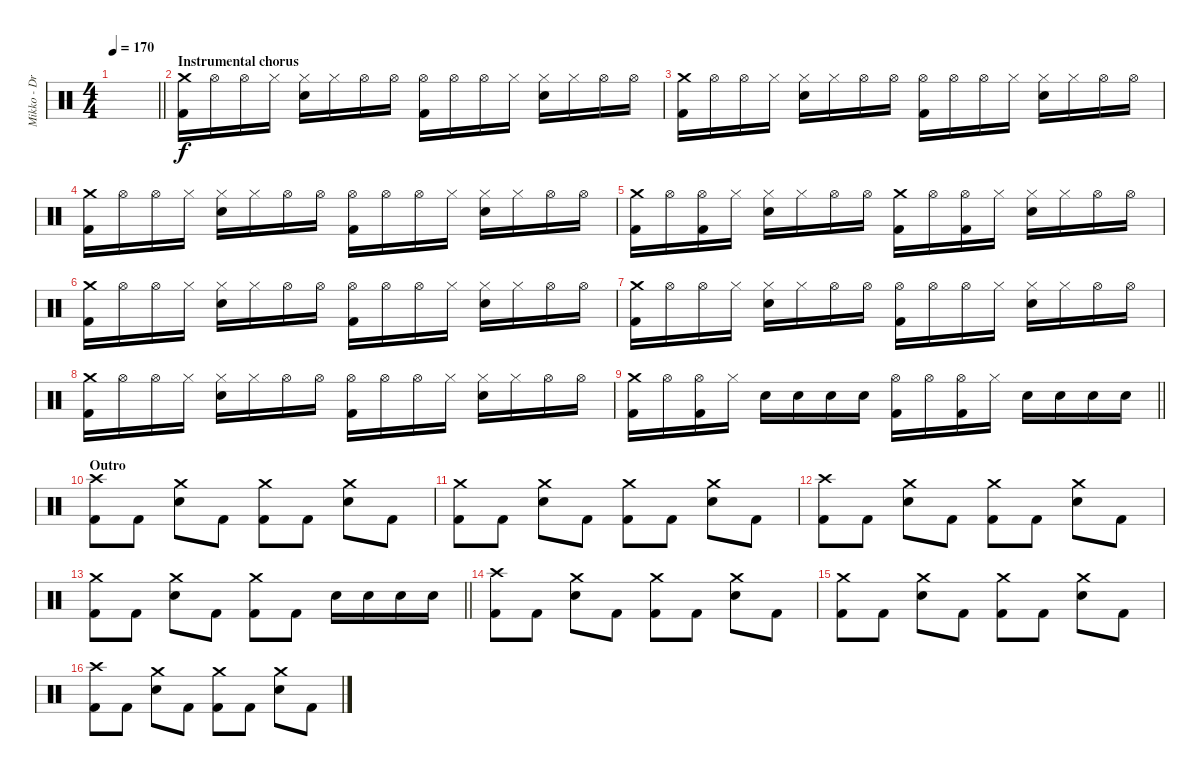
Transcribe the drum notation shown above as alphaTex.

\track ("Mikko - Drums" "Mikko - Dr") {instrument percussion}
\staff {score}
\articulation defaults
\ts (4 4)
\tempo 170
\clef neutral
\barLineRight lightlight
\ks c
|
\section ("" "Instrumental chorus")
("Crash medium (hit)" "Kick (hit) 2").16 "Hi-Hat (open)".16 "Hi-Hat (open)".16 "Hi-Hat (closed)".16 ("Hi-Hat (closed)" "Snare (hit) 2").16 "Hi-Hat (closed)".16 "Hi-Hat (open)".16 "Hi-Hat (open)".16 ("Hi-Hat (open)" "Kick (hit) 2").16 "Hi-Hat (open)".16 "Hi-Hat (open)".16 "Hi-Hat (closed)".16 ("Hi-Hat (closed)" "Snare (hit) 2").16 "Hi-Hat (closed)".16 "Hi-Hat (open)".16 "Hi-Hat (open)".16 |
("Crash medium (hit)" "Kick (hit) 2").16 "Hi-Hat (open)".16 "Hi-Hat (open)".16 "Hi-Hat (closed)".16 ("Hi-Hat (closed)" "Snare (hit) 2").16 "Hi-Hat (closed)".16 "Hi-Hat (open)".16 "Hi-Hat (open)".16 ("Hi-Hat (open)" "Kick (hit) 2").16 "Hi-Hat (open)".16 "Hi-Hat (open)".16 "Hi-Hat (closed)".16 ("Hi-Hat (closed)" "Snare (hit) 2").16 "Hi-Hat (closed)".16 "Hi-Hat (open)".16 "Hi-Hat (open)".16 |
("Crash medium (hit)" "Kick (hit) 2").16 "Hi-Hat (open)".16 "Hi-Hat (open)".16 "Hi-Hat (closed)".16 ("Hi-Hat (closed)" "Snare (hit) 2").16 "Hi-Hat (closed)".16 "Hi-Hat (open)".16 "Hi-Hat (open)".16 ("Hi-Hat (open)" "Kick (hit) 2").16 "Hi-Hat (open)".16 "Hi-Hat (open)".16 "Hi-Hat (closed)".16 ("Hi-Hat (closed)" "Snare (hit) 2").16 "Hi-Hat (closed)".16 "Hi-Hat (open)".16 "Hi-Hat (open)".16 |
("Crash medium (hit)" "Kick (hit) 2").16 "Hi-Hat (open)".16 ("Hi-Hat (open)" "Kick (hit) 2").16 "Hi-Hat (closed)".16 ("Hi-Hat (closed)" "Snare (hit) 2").16 "Hi-Hat (closed)".16 "Hi-Hat (open)".16 "Hi-Hat (open)".16 ("Crash medium (hit)" "Kick (hit) 2").16 "Hi-Hat (open)".16 ("Hi-Hat (open)" "Kick (hit) 2").16 "Hi-Hat (closed)".16 ("Hi-Hat (closed)" "Snare (hit) 2").16 "Hi-Hat (closed)".16 "Hi-Hat (open)".16 "Hi-Hat (open)".16 |
("Crash medium (hit)" "Kick (hit) 2").16 "Hi-Hat (open)".16 "Hi-Hat (open)".16 "Hi-Hat (closed)".16 ("Hi-Hat (closed)" "Snare (hit) 2").16 "Hi-Hat (closed)".16 "Hi-Hat (open)".16 "Hi-Hat (open)".16 ("Hi-Hat (open)" "Kick (hit) 2").16 "Hi-Hat (open)".16 "Hi-Hat (open)".16 "Hi-Hat (closed)".16 ("Hi-Hat (closed)" "Snare (hit) 2").16 "Hi-Hat (closed)".16 "Hi-Hat (open)".16 "Hi-Hat (open)".16 |
("Crash medium (hit)" "Kick (hit) 2").16 "Hi-Hat (open)".16 "Hi-Hat (open)".16 "Hi-Hat (closed)".16 ("Hi-Hat (closed)" "Snare (hit) 2").16 "Hi-Hat (closed)".16 "Hi-Hat (open)".16 "Hi-Hat (open)".16 ("Hi-Hat (open)" "Kick (hit) 2").16 "Hi-Hat (open)".16 "Hi-Hat (open)".16 "Hi-Hat (closed)".16 ("Hi-Hat (closed)" "Snare (hit) 2").16 "Hi-Hat (closed)".16 "Hi-Hat (open)".16 "Hi-Hat (open)".16 |
("Crash medium (hit)" "Kick (hit) 2").16 "Hi-Hat (open)".16 "Hi-Hat (open)".16 "Hi-Hat (closed)".16 ("Hi-Hat (closed)" "Snare (hit) 2").16 "Hi-Hat (closed)".16 "Hi-Hat (open)".16 "Hi-Hat (open)".16 ("Hi-Hat (open)" "Kick (hit) 2").16 "Hi-Hat (open)".16 "Hi-Hat (open)".16 "Hi-Hat (closed)".16 ("Hi-Hat (closed)" "Snare (hit) 2").16 "Hi-Hat (closed)".16 "Hi-Hat (open)".16 "Hi-Hat (open)".16 |
\barLineRight lightlight
("Crash medium (hit)" "Kick (hit) 2").16 "Hi-Hat (open)".16 ("Hi-Hat (open)" "Kick (hit) 2").16 "Hi-Hat (closed)".16 "Snare (hit) 2".16 "Snare (hit) 2".16 "Snare (hit) 2".16 "Snare (hit) 2".16 ("Hi-Hat (open)" "Kick (hit) 2").16 "Hi-Hat (open)".16 ("Hi-Hat (open)" "Kick (hit) 2").16 "Hi-Hat (closed)".16 "Snare (hit) 2".16 "Snare (hit) 2".16 "Snare (hit) 2".16 "Snare (hit) 2".16 |
\section ("" "Outro")
("Crash high (hit)" "Kick (hit) 2").8 "Kick (hit) 2".8 ("Crash medium (hit)" "Snare (hit) 2").8 "Kick (hit) 2".8 ("Crash medium (hit)" "Kick (hit) 2").8 "Kick (hit) 2".8 ("Crash medium (hit)" "Snare (hit) 2").8 "Kick (hit) 2".8 |
("Crash medium (hit)" "Kick (hit) 2").8 "Kick (hit) 2".8 ("Crash medium (hit)" "Snare (hit) 2").8 "Kick (hit) 2".8 ("Crash medium (hit)" "Kick (hit) 2").8 "Kick (hit) 2".8 ("Crash medium (hit)" "Snare (hit) 2").8 "Kick (hit) 2".8 |
("Crash high (hit)" "Kick (hit) 2").8 "Kick (hit) 2".8 ("Crash medium (hit)" "Snare (hit) 2").8 "Kick (hit) 2".8 ("Crash medium (hit)" "Kick (hit) 2").8 "Kick (hit) 2".8 ("Crash medium (hit)" "Snare (hit) 2").8 "Kick (hit) 2".8 |
\barLineRight lightlight
("Crash medium (hit)" "Kick (hit) 2").8 "Kick (hit) 2".8 ("Crash medium (hit)" "Snare (hit) 2").8 "Kick (hit) 2".8 ("Crash medium (hit)" "Kick (hit) 2").8 "Kick (hit) 2".8 "Snare (hit) 2".16 "Snare (hit) 2".16 "Snare (hit) 2".16 "Snare (hit) 2".16 |
("Crash high (hit)" "Kick (hit) 2").8 "Kick (hit) 2".8 ("Crash medium (hit)" "Snare (hit) 2").8 "Kick (hit) 2".8 ("Crash medium (hit)" "Kick (hit) 2").8 "Kick (hit) 2".8 ("Crash medium (hit)" "Snare (hit) 2").8 "Kick (hit) 2".8 |
("Crash medium (hit)" "Kick (hit) 2").8 "Kick (hit) 2".8 ("Crash medium (hit)" "Snare (hit) 2").8 "Kick (hit) 2".8 ("Crash medium (hit)" "Kick (hit) 2").8 "Kick (hit) 2".8 ("Crash medium (hit)" "Snare (hit) 2").8 "Kick (hit) 2".8 |
("Crash high (hit)" "Kick (hit) 2").8 "Kick (hit) 2".8 ("Crash medium (hit)" "Snare (hit) 2").8 "Kick (hit) 2".8 ("Crash medium (hit)" "Kick (hit) 2").8 "Kick (hit) 2".8 ("Crash medium (hit)" "Snare (hit) 2").8 "Kick (hit) 2".8
